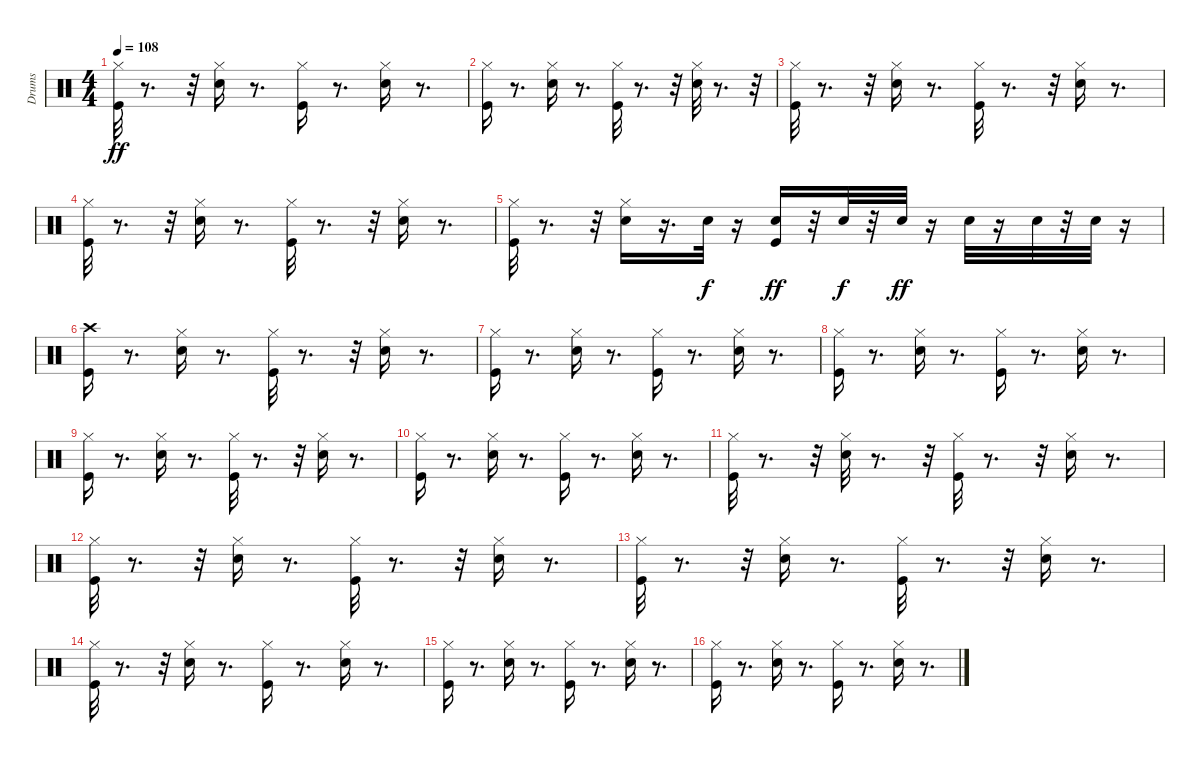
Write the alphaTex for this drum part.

\track ("Drums" "Drums") {instrument percussion}
\staff {score}
\articulation defaults
\ts (4 4)
\tempo 108
\clef neutral
\ks c
("Kick (hit)" "Hi-Hat (closed)").32{dy ff} r.8{d} r.32 ("Electric Snare (hit)" "Hi-Hat (closed)").16 r.8{d} ("Kick (hit)" "Hi-Hat (closed)").16 r.8{d} ("Electric Snare (hit)" "Hi-Hat (closed)").16 r.8{d} |
("Kick (hit)" "Hi-Hat (closed)").16 r.8{d} ("Electric Snare (hit)" "Hi-Hat (closed)").16 r.8{d} ("Kick (hit)" "Hi-Hat (closed)").32 r.8{d} r.32 ("Electric Snare (hit)" "Hi-Hat (closed)").32 r.8{d} r.32 |
("Hi-Hat (closed)" "Kick (hit)").32 r.8{d} r.32 ("Electric Snare (hit)" "Hi-Hat (closed)").16 r.8{d} ("Kick (hit)" "Hi-Hat (closed)").32 r.8{d} r.32 ("Electric Snare (hit)" "Hi-Hat (closed)").16 r.8{d} |
("Kick (hit)" "Hi-Hat (closed)").32 r.8{d} r.32 ("Electric Snare (hit)" "Hi-Hat (closed)").16 r.8{d} ("Kick (hit)" "Hi-Hat (closed)").32 r.8{d} r.32 ("Electric Snare (hit)" "Hi-Hat (closed)").16 r.8{d} |
("Kick (hit)" "Hi-Hat (closed)").32 r.8{d} r.32 ("Electric Snare (hit)" "Hi-Hat (closed)").16 r.16{d} "Electric Snare (hit)".32{dy f} r.16 ("Kick (hit)" "Electric Snare (hit)").16{dy ff} r.32 "Electric Snare (hit)".32{dy f} r.32 "Electric Snare (hit)".32{dy ff} r.16 "Electric Snare (hit)".32 r.16 "Electric Snare (hit)".32 r.32 "Electric Snare (hit)".32 r.16 |
("Crash high (hit)" "Kick (hit)").16 r.8{d} ("Hi-Hat (closed)" "Electric Snare (hit)").16 r.8{d} ("Hi-Hat (closed)" "Kick (hit)").32 r.8{d} r.32 ("Hi-Hat (closed)" "Electric Snare (hit)").16 r.8{d} |
("Hi-Hat (closed)" "Kick (hit)").16 r.8{d} ("Electric Snare (hit)" "Hi-Hat (closed)").16 r.8{d} ("Hi-Hat (closed)" "Kick (hit)").16 r.8{d} ("Hi-Hat (closed)" "Electric Snare (hit)").16 r.8{d} |
("Kick (hit)" "Hi-Hat (closed)").16 r.8{d} ("Hi-Hat (closed)" "Electric Snare (hit)").16 r.8{d} ("Hi-Hat (closed)" "Kick (hit)").16 r.8{d} ("Hi-Hat (closed)" "Electric Snare (hit)").16 r.8{d} |
("Hi-Hat (closed)" "Kick (hit)").16 r.8{d} ("Hi-Hat (closed)" "Electric Snare (hit)").16 r.8{d} ("Kick (hit)" "Hi-Hat (closed)").32 r.8{d} r.32 ("Electric Snare (hit)" "Hi-Hat (closed)").16 r.8{d} |
("Kick (hit)" "Hi-Hat (closed)").16 r.8{d} ("Electric Snare (hit)" "Hi-Hat (closed)").16 r.8{d} ("Kick (hit)" "Hi-Hat (closed)").16 r.8{d} ("Electric Snare (hit)" "Hi-Hat (closed)").16 r.8{d} |
("Kick (hit)" "Hi-Hat (closed)").32 r.8{d} r.32 ("Electric Snare (hit)" "Hi-Hat (closed)").32 r.8{d} r.32 ("Kick (hit)" "Hi-Hat (closed)").32 r.8{d} r.32 ("Hi-Hat (closed)" "Electric Snare (hit)").16 r.8{d} |
("Kick (hit)" "Hi-Hat (closed)").32 r.8{d} r.32 ("Electric Snare (hit)" "Hi-Hat (closed)").16 r.8{d} ("Kick (hit)" "Hi-Hat (closed)").32 r.8{d} r.32 ("Electric Snare (hit)" "Hi-Hat (closed)").16 r.8{d} |
("Kick (hit)" "Hi-Hat (closed)").32 r.8{d} r.32 ("Electric Snare (hit)" "Hi-Hat (closed)").16 r.8{d} ("Kick (hit)" "Hi-Hat (closed)").32 r.8{d} r.32 ("Electric Snare (hit)" "Hi-Hat (closed)").16 r.8{d} |
("Kick (hit)" "Hi-Hat (closed)").32 r.8{d} r.32 ("Electric Snare (hit)" "Hi-Hat (closed)").16 r.8{d} ("Kick (hit)" "Hi-Hat (closed)").16 r.8{d} ("Hi-Hat (closed)" "Electric Snare (hit)").16 r.8{d} |
("Hi-Hat (closed)" "Kick (hit)").16 r.8{d} ("Hi-Hat (closed)" "Electric Snare (hit)").16 r.8{d} ("Kick (hit)" "Hi-Hat (closed)").16 r.8{d} ("Hi-Hat (closed)" "Electric Snare (hit)").16 r.8{d} |
("Hi-Hat (closed)" "Kick (hit)").16 r.8{d} ("Hi-Hat (closed)" "Electric Snare (hit)").16 r.8{d} ("Hi-Hat (closed)" "Kick (hit)").16 r.8{d} ("Electric Snare (hit)" "Hi-Hat (closed)").16 r.8{d}
